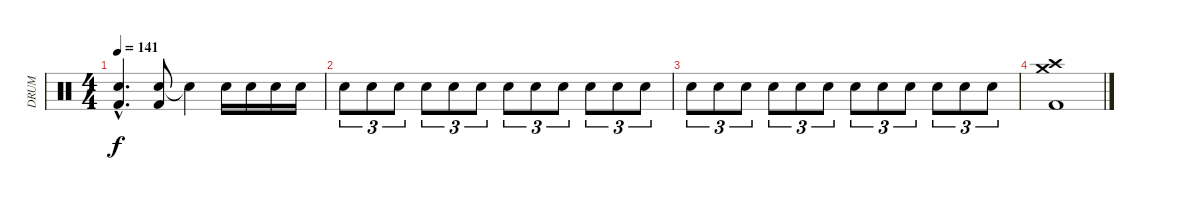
\track ("DRUM" "DRUM") {instrument percussion}
\staff {score}
\articulation defaults
\ts (4 4)
\tempo 141
\clef neutral
\ks c
("Snare (hit) 2"{hac} "Kick (hit) 2"{hac}).4{d dy f} ("Snare (hit) 2" "Kick (hit) 2").8 "Snare (hit)"{t}.4 "Electric Snare (hit)".16 "Electric Snare (hit)".16 "Electric Snare (hit)".16 "Electric Snare (hit)".16 |
"Snare (hit) 2".8{tu (3 2)} "Electric Snare (hit)".8{tu (3 2)} "Snare (hit) 2".8{tu (3 2)} "Snare (hit) 2".8{tu (3 2)} "Electric Snare (hit)".8{tu (3 2)} "Snare (hit) 2".8{tu (3 2)} "Snare (hit) 2".8{tu (3 2)} "Electric Snare (hit)".8{tu (3 2)} "Snare (hit) 2".8{tu (3 2)} "Snare (hit) 2".8{tu (3 2)} "Electric Snare (hit)".8{tu (3 2)} "Snare (hit) 2".8{tu (3 2)} |
"Snare (hit) 2".8{tu (3 2)} "Electric Snare (hit)".8{tu (3 2)} "Snare (hit) 2".8{tu (3 2)} "Snare (hit) 2".8{tu (3 2)} "Electric Snare (hit)".8{tu (3 2)} "Snare (hit) 2".8{tu (3 2)} "Snare (hit) 2".8{tu (3 2)} "Electric Snare (hit)".8{tu (3 2)} "Snare (hit) 2".8{tu (3 2)} "Snare (hit) 2".8{tu (3 2)} "Electric Snare (hit)".8{tu (3 2)} "Snare (hit) 2".8{tu (3 2)} |
("Crash high (hit)" "Crash medium (hit)" "Kick (hit) 2").1
